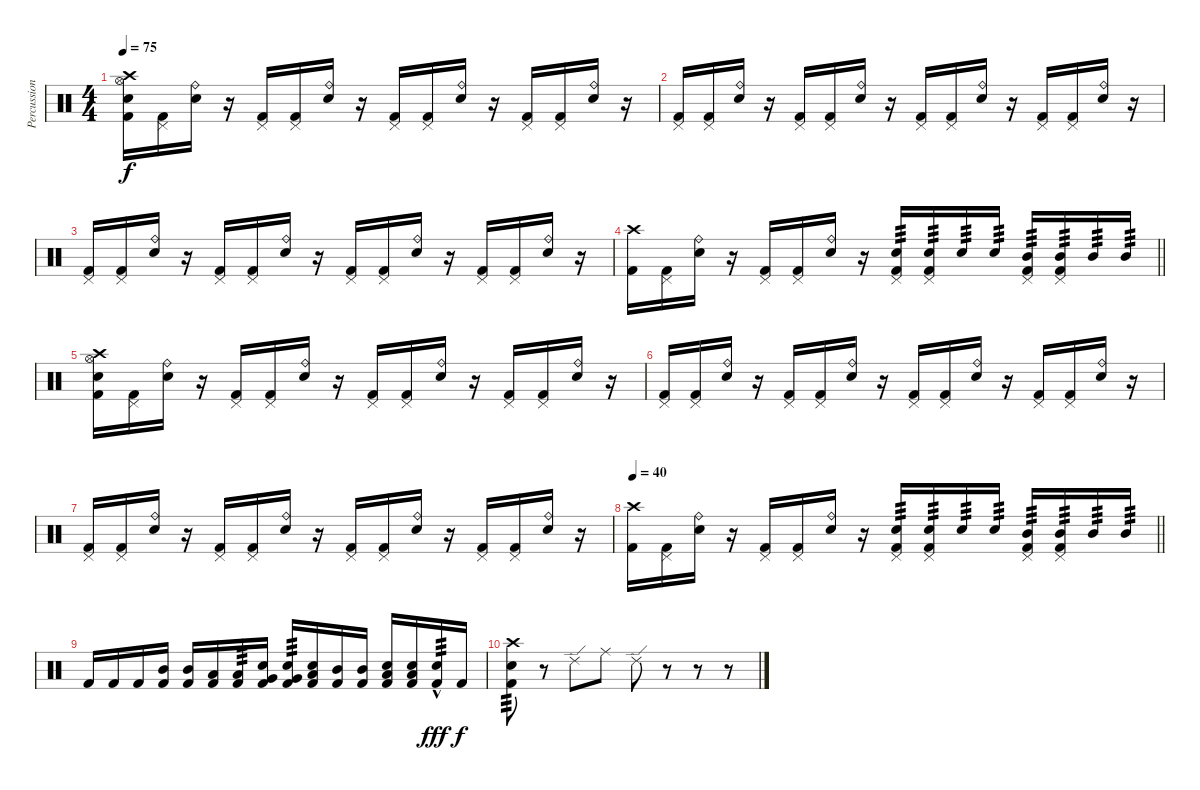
\track ("Percussion" "Percussion") {instrument percussion}
\staff {score}
\articulation defaults
\ts (4 4)
\tempo 75
\clef neutral
\ks c
("Kick (hit) 2" "Snare (hit) 2" "Hi-Hat (open)" "Crash high (hit)").16{dy f} ("Kick (hit) 2" "Pedal Hi-Hat (hit)").16 ("Snare (hit) 2" "Ride (bell)").16 r.16 ("Kick (hit) 2" "Pedal Hi-Hat (hit)").16 ("Kick (hit) 2" "Pedal Hi-Hat (hit)").16 ("Snare (hit) 2" "Ride (bell)").16 r.16 ("Kick (hit) 2" "Pedal Hi-Hat (hit)").16 ("Kick (hit) 2" "Pedal Hi-Hat (hit)").16 ("Snare (hit) 2" "Ride (bell)").16 r.16 ("Kick (hit) 2" "Pedal Hi-Hat (hit)").16 ("Kick (hit) 2" "Pedal Hi-Hat (hit)").16 ("Snare (hit) 2" "Ride (bell)").16 r.16 |
("Kick (hit) 2" "Pedal Hi-Hat (hit)").16 ("Kick (hit) 2" "Pedal Hi-Hat (hit)").16 ("Snare (hit) 2" "Ride (bell)").16 r.16 ("Kick (hit) 2" "Pedal Hi-Hat (hit)").16 ("Kick (hit) 2" "Pedal Hi-Hat (hit)").16 ("Snare (hit) 2" "Ride (bell)").16 r.16 ("Kick (hit) 2" "Pedal Hi-Hat (hit)").16 ("Kick (hit) 2" "Pedal Hi-Hat (hit)").16 ("Snare (hit) 2" "Ride (bell)").16 r.16 ("Kick (hit) 2" "Pedal Hi-Hat (hit)").16 ("Kick (hit) 2" "Pedal Hi-Hat (hit)").16 ("Snare (hit) 2" "Ride (bell)").16 r.16 |
("Kick (hit) 2" "Pedal Hi-Hat (hit)").16 ("Kick (hit) 2" "Pedal Hi-Hat (hit)").16 ("Snare (hit) 2" "Ride (bell)").16 r.16 ("Kick (hit) 2" "Pedal Hi-Hat (hit)").16 ("Kick (hit) 2" "Pedal Hi-Hat (hit)").16 ("Snare (hit) 2" "Ride (bell)").16 r.16 ("Kick (hit) 2" "Pedal Hi-Hat (hit)").16 ("Kick (hit) 2" "Pedal Hi-Hat (hit)").16 ("Snare (hit) 2" "Ride (bell)").16 r.16 ("Kick (hit) 2" "Pedal Hi-Hat (hit)").16 ("Kick (hit) 2" "Pedal Hi-Hat (hit)").16 ("Snare (hit) 2" "Ride (bell)").16 r.16 |
\barLineRight lightlight
("Kick (hit) 2" "Crash high (hit)").16 ("Kick (hit) 2" "Pedal Hi-Hat (hit)").16 ("Snare (hit) 2" "Ride (bell)").16 r.16 ("Kick (hit) 2" "Pedal Hi-Hat (hit)").16 ("Kick (hit) 2" "Pedal Hi-Hat (hit)").16 ("Snare (hit) 2" "Ride (bell)").16 r.16 ("Kick (hit) 2" "Snare (hit) 2" "Pedal Hi-Hat (hit)").16{tp 3} ("Kick (hit) 2" "Snare (hit) 2" "Pedal Hi-Hat (hit)").16{tp 3} "Snare (hit) 2".16{tp 3} "Snare (hit) 2".16{tp 3} ("Kick (hit) 2" "Mid Tom (hit)" "Pedal Hi-Hat (hit)").16{tp 3} ("Kick (hit) 2" "Mid Tom (hit)" "Pedal Hi-Hat (hit)").16{tp 3} "Mid Tom (hit)".16{tp 3} "Mid Tom (hit)".16{tp 3} |
("Kick (hit) 2" "Snare (hit) 2" "Hi-Hat (open)" "Crash high (hit)").16 ("Kick (hit) 2" "Pedal Hi-Hat (hit)").16 ("Snare (hit) 2" "Ride (bell)").16 r.16 ("Kick (hit) 2" "Pedal Hi-Hat (hit)").16 ("Kick (hit) 2" "Pedal Hi-Hat (hit)").16 ("Snare (hit) 2" "Ride (bell)").16 r.16 ("Kick (hit) 2" "Pedal Hi-Hat (hit)").16 ("Kick (hit) 2" "Pedal Hi-Hat (hit)").16 ("Snare (hit) 2" "Ride (bell)").16 r.16 ("Kick (hit) 2" "Pedal Hi-Hat (hit)").16 ("Kick (hit) 2" "Pedal Hi-Hat (hit)").16 ("Snare (hit) 2" "Ride (bell)").16 r.16 |
("Kick (hit) 2" "Pedal Hi-Hat (hit)").16 ("Kick (hit) 2" "Pedal Hi-Hat (hit)").16 ("Snare (hit) 2" "Ride (bell)").16 r.16 ("Kick (hit) 2" "Pedal Hi-Hat (hit)").16 ("Kick (hit) 2" "Pedal Hi-Hat (hit)").16 ("Snare (hit) 2" "Ride (bell)").16 r.16 ("Kick (hit) 2" "Pedal Hi-Hat (hit)").16 ("Kick (hit) 2" "Pedal Hi-Hat (hit)").16 ("Snare (hit) 2" "Ride (bell)").16 r.16 ("Kick (hit) 2" "Pedal Hi-Hat (hit)").16 ("Kick (hit) 2" "Pedal Hi-Hat (hit)").16 ("Snare (hit) 2" "Ride (bell)").16 r.16 |
("Kick (hit) 2" "Pedal Hi-Hat (hit)").16 ("Kick (hit) 2" "Pedal Hi-Hat (hit)").16 ("Snare (hit) 2" "Ride (bell)").16 r.16 ("Kick (hit) 2" "Pedal Hi-Hat (hit)").16 ("Kick (hit) 2" "Pedal Hi-Hat (hit)").16 ("Snare (hit) 2" "Ride (bell)").16 r.16 ("Kick (hit) 2" "Pedal Hi-Hat (hit)").16 ("Kick (hit) 2" "Pedal Hi-Hat (hit)").16 ("Snare (hit) 2" "Ride (bell)").16 r.16 ("Kick (hit) 2" "Pedal Hi-Hat (hit)").16 ("Kick (hit) 2" "Pedal Hi-Hat (hit)").16 ("Snare (hit) 2" "Ride (bell)").16 r.16 |
\tempo 40
\barLineRight lightlight
("Kick (hit) 2" "Crash high (hit)").16 ("Kick (hit) 2" "Pedal Hi-Hat (hit)").16 ("Snare (hit) 2" "Ride (bell)").16 r.16 ("Kick (hit) 2" "Pedal Hi-Hat (hit)").16 ("Kick (hit) 2" "Pedal Hi-Hat (hit)").16 ("Snare (hit) 2" "Ride (bell)").16 r.16 ("Kick (hit) 2" "Snare (hit) 2" "Pedal Hi-Hat (hit)").16{tp 3} ("Kick (hit) 2" "Snare (hit) 2" "Pedal Hi-Hat (hit)").16{tp 3} "Snare (hit) 2".16{tp 3} "Snare (hit) 2".16{tp 3} ("Kick (hit) 2" "Mid Tom (hit)" "Pedal Hi-Hat (hit)").16{tp 3} ("Kick (hit) 2" "Mid Tom (hit)" "Pedal Hi-Hat (hit)").16{tp 3} "Mid Tom (hit)".16{tp 3} "Mid Tom (hit)".16{tp 3} |
"Kick (hit) 2".16 "Kick (hit) 2".16 "Kick (hit) 2".16 ("Kick (hit) 2" "Mid Tom (hit)").16 ("Kick (hit) 2" "Mid Tom (hit)").16 ("Kick (hit) 2" "Low Tom (hit)").16 ("Kick (hit) 2" "Low Tom (hit)").16{tp 3} ("Kick (hit) 2" "Very Low Tom (hit)" "Snare (hit) 2").16 ("Kick (hit) 2" "Very Low Tom (hit)" "Snare (hit) 2").16{tp 3} ("Kick (hit) 2" "Low Floor Tom (hit)" "Snare (hit) 2").16 ("Kick (hit) 2" "Mid Tom (hit)").16 ("Kick (hit) 2" "Mid Tom (hit)").16 ("Kick (hit) 2" "Low Tom (hit)" "Snare (hit) 2").16 ("Kick (hit) 2" "Low Tom (hit)" "Snare (hit) 2").16 ("Kick (hit) 2"{hac} "Snare (hit) 2").16{tp 3 dy fff} "Kick (hit) 2".16{dy f} |
("Kick (hit) 2" "Snare (hit) 2" "Crash high (hit)").8{tp 3} r.8 "Ride (edge) 2".8 "Ride (middle)".8 "Ride (edge) 2".8 r.8 r.8 r.8
